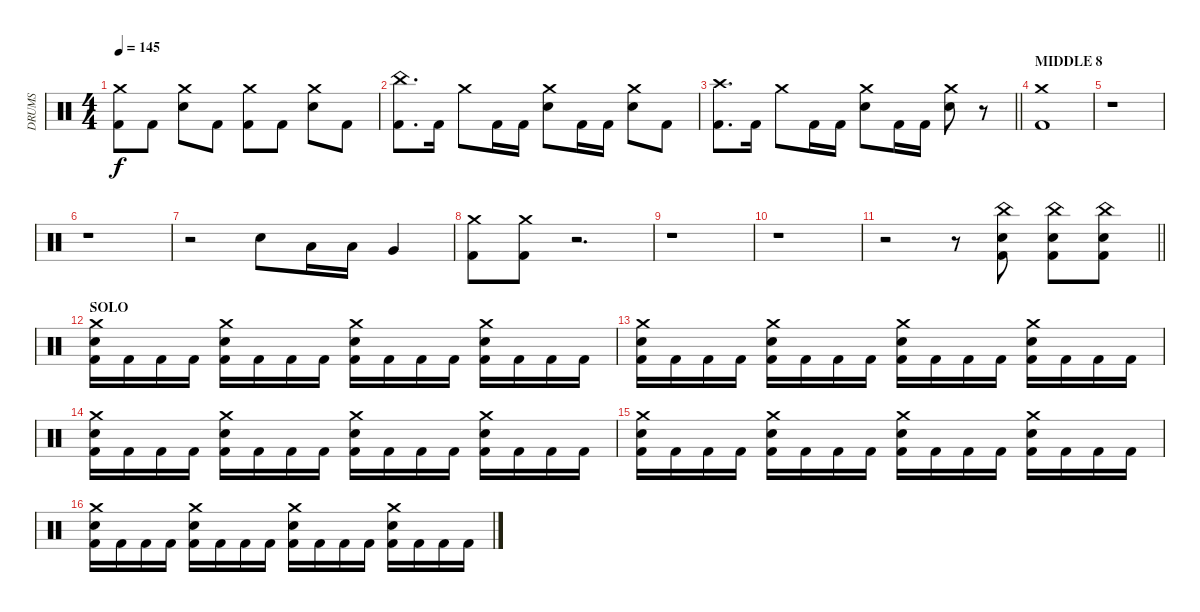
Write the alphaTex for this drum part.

\track ("DRUMS" "DRUMS") {instrument percussion}
\staff {score}
\articulation defaults
\ts (4 4)
\tempo 145
\clef neutral
\ks c
("Crash medium (hit)" "Kick (hit) 2").8{dy f} "Kick (hit) 2".8 ("Crash medium (hit)" "Electric Snare (hit)").8 "Kick (hit) 2".8 ("Crash medium (hit)" "Kick (hit) 2").8 "Kick (hit) 2".8 ("Crash medium (hit)" "Electric Snare (hit)").8 "Kick (hit) 2".8 |
("China (hit)" "Kick (hit) 2").8{d} "Kick (hit) 2".16 "Crash medium (hit)".8 "Kick (hit) 2".16 "Kick (hit) 2".16 ("Crash medium (hit)" "Electric Snare (hit)").8 "Kick (hit) 2".16 "Kick (hit) 2".16 ("Crash medium (hit)" "Electric Snare (hit)").8 "Kick (hit) 2".8 |
\barLineRight lightlight
("Crash high (hit)" "Kick (hit) 2").8{d} "Kick (hit) 2".16 "Crash medium (hit)".8 "Kick (hit) 2".16 "Kick (hit) 2".16 ("Crash medium (hit)" "Electric Snare (hit)").8 "Kick (hit) 2".16 "Kick (hit) 2".16 ("Crash medium (hit)" "Electric Snare (hit)").8 r.8 |
\section ("" "MIDDLE 8")
("Crash medium (hit)" "Kick (hit) 2").1 |
r.1 |
r.1 |
r.2 "Electric Snare (hit)".8 "Low Tom (hit)".16 "Low Tom (hit)".16 "Very Low Tom (hit)".4 |
("Crash medium (hit)" "Kick (hit) 2").8 ("Crash medium (hit)" "Kick (hit) 2").8 r.2{d} |
r.1 |
r.1 |
\barLineRight lightlight
r.2 r.8 ("China (hit)" "Electric Snare (hit)" "Kick (hit) 2").8 ("China (hit)" "Electric Snare (hit)" "Kick (hit) 2").8 ("China (hit)" "Electric Snare (hit)" "Kick (hit) 2").8 |
\section ("" "SOLO")
("Crash medium (hit)" "Electric Snare (hit)" "Kick (hit) 2").16 "Kick (hit) 2".16 "Kick (hit) 2".16 "Kick (hit) 2".16 ("Crash medium (hit)" "Electric Snare (hit)" "Kick (hit) 2").16 "Kick (hit) 2".16 "Kick (hit) 2".16 "Kick (hit) 2".16 ("Crash medium (hit)" "Electric Snare (hit)" "Kick (hit) 2").16 "Kick (hit) 2".16 "Kick (hit) 2".16 "Kick (hit) 2".16 ("Crash medium (hit)" "Electric Snare (hit)" "Kick (hit) 2").16 "Kick (hit) 2".16 "Kick (hit) 2".16 "Kick (hit) 2".16 |
("Crash medium (hit)" "Electric Snare (hit)" "Kick (hit) 2").16 "Kick (hit) 2".16 "Kick (hit) 2".16 "Kick (hit) 2".16 ("Crash medium (hit)" "Electric Snare (hit)" "Kick (hit) 2").16 "Kick (hit) 2".16 "Kick (hit) 2".16 "Kick (hit) 2".16 ("Crash medium (hit)" "Electric Snare (hit)" "Kick (hit) 2").16 "Kick (hit) 2".16 "Kick (hit) 2".16 "Kick (hit) 2".16 ("Crash medium (hit)" "Electric Snare (hit)" "Kick (hit) 2").16 "Kick (hit) 2".16 "Kick (hit) 2".16 "Kick (hit) 2".16 |
("Crash medium (hit)" "Electric Snare (hit)" "Kick (hit) 2").16 "Kick (hit) 2".16 "Kick (hit) 2".16 "Kick (hit) 2".16 ("Crash medium (hit)" "Electric Snare (hit)" "Kick (hit) 2").16 "Kick (hit) 2".16 "Kick (hit) 2".16 "Kick (hit) 2".16 ("Crash medium (hit)" "Electric Snare (hit)" "Kick (hit) 2").16 "Kick (hit) 2".16 "Kick (hit) 2".16 "Kick (hit) 2".16 ("Crash medium (hit)" "Electric Snare (hit)" "Kick (hit) 2").16 "Kick (hit) 2".16 "Kick (hit) 2".16 "Kick (hit) 2".16 |
("Crash medium (hit)" "Electric Snare (hit)" "Kick (hit) 2").16 "Kick (hit) 2".16 "Kick (hit) 2".16 "Kick (hit) 2".16 ("Crash medium (hit)" "Electric Snare (hit)" "Kick (hit) 2").16 "Kick (hit) 2".16 "Kick (hit) 2".16 "Kick (hit) 2".16 ("Crash medium (hit)" "Electric Snare (hit)" "Kick (hit) 2").16 "Kick (hit) 2".16 "Kick (hit) 2".16 "Kick (hit) 2".16 ("Crash medium (hit)" "Electric Snare (hit)" "Kick (hit) 2").16 "Kick (hit) 2".16 "Kick (hit) 2".16 "Kick (hit) 2".16 |
("Crash medium (hit)" "Electric Snare (hit)" "Kick (hit) 2").16 "Kick (hit) 2".16 "Kick (hit) 2".16 "Kick (hit) 2".16 ("Crash medium (hit)" "Electric Snare (hit)" "Kick (hit) 2").16 "Kick (hit) 2".16 "Kick (hit) 2".16 "Kick (hit) 2".16 ("Crash medium (hit)" "Electric Snare (hit)" "Kick (hit) 2").16 "Kick (hit) 2".16 "Kick (hit) 2".16 "Kick (hit) 2".16 ("Crash medium (hit)" "Electric Snare (hit)" "Kick (hit) 2").16 "Kick (hit) 2".16 "Kick (hit) 2".16 "Kick (hit) 2".16
